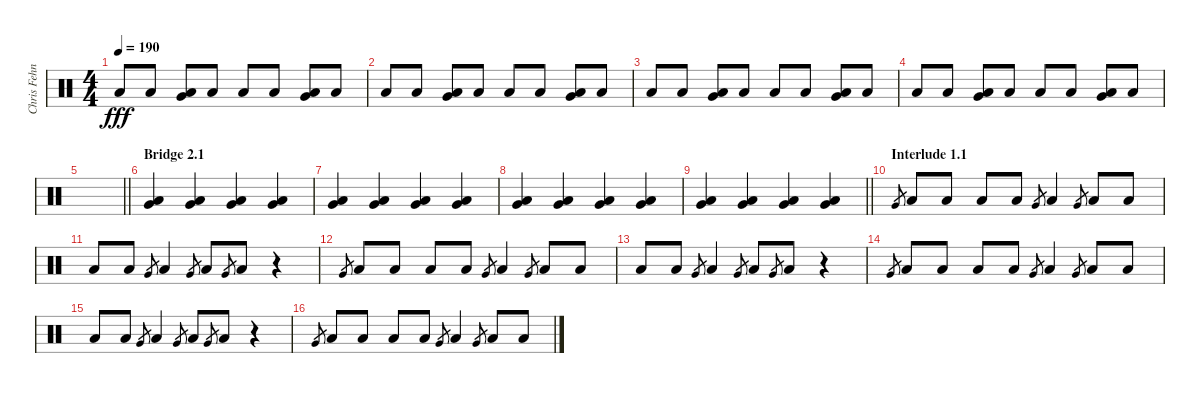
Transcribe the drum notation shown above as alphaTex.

\track ("Chris Fehn" "Chris Fehn") {instrument percussion}
\staff {score}
\articulation defaults
\ts (4 4)
\tempo 190
\clef neutral
\ks c "Low Floor Tom (hit)".8{dy fff} "Low Floor Tom (hit)".8
("Very Low Tom (hit)" "Low Floor Tom (hit)").8 "Low Floor Tom (hit)".8 "Low Floor Tom (hit)".8 "Low Floor Tom (hit)".8 ("Very Low Tom (hit)" "Low Floor Tom (hit)").8 "Low Floor Tom (hit)".8 |
"Low Floor Tom (hit)".8 "Low Floor Tom (hit)".8 ("Very Low Tom (hit)" "Low Floor Tom (hit)").8 "Low Floor Tom (hit)".8 "Low Floor Tom (hit)".8 "Low Floor Tom (hit)".8 ("Very Low Tom (hit)" "Low Floor Tom (hit)").8 "Low Floor Tom (hit)".8 |
"Low Floor Tom (hit)".8 "Low Floor Tom (hit)".8 ("Very Low Tom (hit)" "Low Floor Tom (hit)").8 "Low Floor Tom (hit)".8 "Low Floor Tom (hit)".8 "Low Floor Tom (hit)".8 ("Very Low Tom (hit)" "Low Floor Tom (hit)").8 "Low Floor Tom (hit)".8 |
"Low Floor Tom (hit)".8 "Low Floor Tom (hit)".8 ("Very Low Tom (hit)" "Low Floor Tom (hit)").8 "Low Floor Tom (hit)".8 "Low Floor Tom (hit)".8 "Low Floor Tom (hit)".8 ("Very Low Tom (hit)" "Low Floor Tom (hit)").8 "Low Floor Tom (hit)".8 |
\barLineRight lightlight
|
\section ("" "Bridge 2.1")
("Very Low Tom (hit)" "Low Floor Tom (hit)").4 ("Very Low Tom (hit)" "Low Floor Tom (hit)").4 ("Very Low Tom (hit)" "Low Floor Tom (hit)").4 ("Very Low Tom (hit)" "Low Floor Tom (hit)").4 |
("Very Low Tom (hit)" "Low Floor Tom (hit)").4 ("Very Low Tom (hit)" "Low Floor Tom (hit)").4 ("Very Low Tom (hit)" "Low Floor Tom (hit)").4 ("Very Low Tom (hit)" "Low Floor Tom (hit)").4 |
("Very Low Tom (hit)" "Low Floor Tom (hit)").4 ("Very Low Tom (hit)" "Low Floor Tom (hit)").4 ("Very Low Tom (hit)" "Low Floor Tom (hit)").4 ("Very Low Tom (hit)" "Low Floor Tom (hit)").4 |
\barLineRight lightlight
("Very Low Tom (hit)" "Low Floor Tom (hit)").4 ("Very Low Tom (hit)" "Low Floor Tom (hit)").4 ("Very Low Tom (hit)" "Low Floor Tom (hit)").4 ("Very Low Tom (hit)" "Low Floor Tom (hit)").4 |
\section ("" "Interlude 1.1")
"Very Low Tom (hit)".8{gr} "Low Floor Tom (hit)".8 "Low Floor Tom (hit)".8 "Low Floor Tom (hit)".8 "Low Floor Tom (hit)".8 "Very Low Tom (hit)".8{gr} "Low Floor Tom (hit)".4 "Very Low Tom (hit)".8{gr} "Low Floor Tom (hit)".8 "Low Floor Tom (hit)".8 |
"Low Floor Tom (hit)".8 "Low Floor Tom (hit)".8 "Very Low Tom (hit)".8{gr} "Low Floor Tom (hit)".4 "Very Low Tom (hit)".8{gr} "Low Floor Tom (hit)".8 "Very Low Tom (hit)".8{gr} "Low Floor Tom (hit)".8 r.4 |
"Very Low Tom (hit)".8{gr} "Low Floor Tom (hit)".8 "Low Floor Tom (hit)".8 "Low Floor Tom (hit)".8 "Low Floor Tom (hit)".8 "Very Low Tom (hit)".8{gr} "Low Floor Tom (hit)".4 "Very Low Tom (hit)".8{gr} "Low Floor Tom (hit)".8 "Low Floor Tom (hit)".8 |
"Low Floor Tom (hit)".8 "Low Floor Tom (hit)".8 "Very Low Tom (hit)".8{gr} "Low Floor Tom (hit)".4 "Very Low Tom (hit)".8{gr} "Low Floor Tom (hit)".8 "Very Low Tom (hit)".8{gr} "Low Floor Tom (hit)".8 r.4 |
"Very Low Tom (hit)".8{gr} "Low Floor Tom (hit)".8 "Low Floor Tom (hit)".8 "Low Floor Tom (hit)".8 "Low Floor Tom (hit)".8 "Very Low Tom (hit)".8{gr} "Low Floor Tom (hit)".4 "Very Low Tom (hit)".8{gr} "Low Floor Tom (hit)".8 "Low Floor Tom (hit)".8 |
"Low Floor Tom (hit)".8 "Low Floor Tom (hit)".8 "Very Low Tom (hit)".8{gr} "Low Floor Tom (hit)".4 "Very Low Tom (hit)".8{gr} "Low Floor Tom (hit)".8 "Very Low Tom (hit)".8{gr} "Low Floor Tom (hit)".8 r.4 |
"Very Low Tom (hit)".8{gr} "Low Floor Tom (hit)".8 "Low Floor Tom (hit)".8 "Low Floor Tom (hit)".8 "Low Floor Tom (hit)".8 "Very Low Tom (hit)".8{gr} "Low Floor Tom (hit)".4 "Very Low Tom (hit)".8{gr} "Low Floor Tom (hit)".8 "Low Floor Tom (hit)".8
